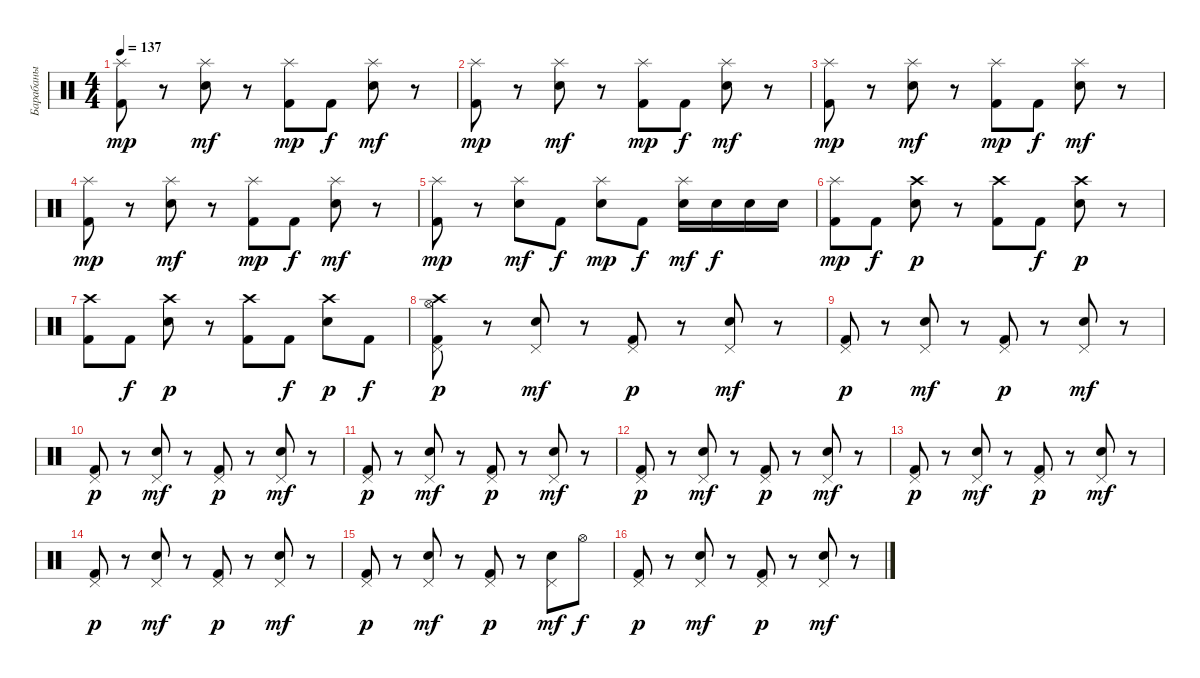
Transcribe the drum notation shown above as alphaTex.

\track ("Барабаны" "Барабаны") {instrument percussion}
\staff {score}
\articulation defaults
\ts (4 4)
\tempo 137
\clef neutral
\ks c
("Splash (hit)" "Kick (hit) 2").8{dy mp} r.8 ("Splash (hit)" "Electric Snare (hit)").8{dy mf} r.8 ("Splash (hit)" "Kick (hit) 2").8{dy mp} "Kick (hit) 2".8{dy f} ("Splash (hit)" "Electric Snare (hit)").8{dy mf} r.8 |
("Splash (hit)" "Kick (hit) 2").8{dy mp} r.8 ("Splash (hit)" "Electric Snare (hit)").8{dy mf} r.8 ("Splash (hit)" "Kick (hit) 2").8{dy mp} "Kick (hit) 2".8{dy f} ("Splash (hit)" "Electric Snare (hit)").8{dy mf} r.8 |
("Splash (hit)" "Kick (hit) 2").8{dy mp} r.8 ("Splash (hit)" "Electric Snare (hit)").8{dy mf} r.8 ("Splash (hit)" "Kick (hit) 2").8{dy mp} "Kick (hit) 2".8{dy f} ("Splash (hit)" "Electric Snare (hit)").8{dy mf} r.8 |
("Splash (hit)" "Kick (hit) 2").8{dy mp} r.8 ("Splash (hit)" "Electric Snare (hit)").8{dy mf} r.8 ("Splash (hit)" "Kick (hit) 2").8{dy mp} "Kick (hit) 2".8{dy f} ("Splash (hit)" "Electric Snare (hit)").8{dy mf} r.8 |
("Splash (hit)" "Kick (hit) 2").8{dy mp} r.8 ("Splash (hit)" "Electric Snare (hit)").8{dy mf} "Kick (hit) 2".8{dy f} ("Splash (hit)" "Electric Snare (hit)").8{dy mp} "Kick (hit) 2".8{dy f} ("Electric Snare (hit)" "Splash (hit)").16{dy mf} "Electric Snare (hit)".16{dy f} "Electric Snare (hit)".16 "Electric Snare (hit)".16 |
("Splash (hit)" "Kick (hit) 2").8{dy mp} "Kick (hit) 2".8{dy f} ("Crash high (hit)" "Electric Snare (hit)").8{dy p} r.8 ("Crash high (hit)" "Kick (hit) 2").8 "Kick (hit) 2".8{dy f} ("Crash high (hit)" "Electric Snare (hit)").8{dy p} r.8 |
("Crash high (hit)" "Kick (hit) 2").8 "Kick (hit) 2".8{dy f} ("Crash high (hit)" "Electric Snare (hit)").8{dy p} r.8 ("Crash high (hit)" "Kick (hit) 2").8 "Kick (hit) 2".8{dy f} ("Crash high (hit)" "Electric Snare (hit)").8{dy p} "Kick (hit) 2".8{dy f} |
("Pedal Hi-Hat (hit)" "Kick (hit) 2" "Hi-Hat (open)" "Crash high (hit)").8{dy p} r.8 ("Pedal Hi-Hat (hit)" "Electric Snare (hit)").8{dy mf} r.8 ("Pedal Hi-Hat (hit)" "Kick (hit) 2").8{dy p} r.8 ("Pedal Hi-Hat (hit)" "Electric Snare (hit)").8{dy mf} r.8 |
("Pedal Hi-Hat (hit)" "Kick (hit) 2").8{dy p} r.8 ("Pedal Hi-Hat (hit)" "Electric Snare (hit)").8{dy mf} r.8 ("Pedal Hi-Hat (hit)" "Kick (hit) 2").8{dy p} r.8 ("Pedal Hi-Hat (hit)" "Electric Snare (hit)").8{dy mf} r.8 |
("Pedal Hi-Hat (hit)" "Kick (hit) 2").8{dy p} r.8 ("Pedal Hi-Hat (hit)" "Electric Snare (hit)").8{dy mf} r.8 ("Pedal Hi-Hat (hit)" "Kick (hit) 2").8{dy p} r.8 ("Pedal Hi-Hat (hit)" "Electric Snare (hit)").8{dy mf} r.8 |
("Pedal Hi-Hat (hit)" "Kick (hit) 2").8{dy p} r.8 ("Pedal Hi-Hat (hit)" "Electric Snare (hit)").8{dy mf} r.8 ("Pedal Hi-Hat (hit)" "Kick (hit) 2").8{dy p} r.8 ("Pedal Hi-Hat (hit)" "Electric Snare (hit)").8{dy mf} r.8 |
("Pedal Hi-Hat (hit)" "Kick (hit) 2").8{dy p} r.8 ("Pedal Hi-Hat (hit)" "Electric Snare (hit)").8{dy mf} r.8 ("Pedal Hi-Hat (hit)" "Kick (hit) 2").8{dy p} r.8 ("Pedal Hi-Hat (hit)" "Electric Snare (hit)").8{dy mf} r.8 |
("Pedal Hi-Hat (hit)" "Kick (hit) 2").8{dy p} r.8 ("Pedal Hi-Hat (hit)" "Electric Snare (hit)").8{dy mf} r.8 ("Pedal Hi-Hat (hit)" "Kick (hit) 2").8{dy p} r.8 ("Pedal Hi-Hat (hit)" "Electric Snare (hit)").8{dy mf} r.8 |
("Pedal Hi-Hat (hit)" "Kick (hit) 2").8{dy p} r.8 ("Pedal Hi-Hat (hit)" "Electric Snare (hit)").8{dy mf} r.8 ("Pedal Hi-Hat (hit)" "Kick (hit) 2").8{dy p} r.8 ("Pedal Hi-Hat (hit)" "Electric Snare (hit)").8{dy mf} r.8 |
("Pedal Hi-Hat (hit)" "Kick (hit) 2").8{dy p} r.8 ("Pedal Hi-Hat (hit)" "Electric Snare (hit)").8{dy mf} r.8 ("Pedal Hi-Hat (hit)" "Kick (hit) 2").8{dy p} r.8 ("Pedal Hi-Hat (hit)" "Electric Snare (hit)").8{dy mf} "Hi-Hat (open)".8{dy f} |
("Pedal Hi-Hat (hit)" "Kick (hit) 2").8{dy p} r.8 ("Pedal Hi-Hat (hit)" "Electric Snare (hit)").8{dy mf} r.8 ("Pedal Hi-Hat (hit)" "Kick (hit) 2").8{dy p} r.8 ("Pedal Hi-Hat (hit)" "Electric Snare (hit)").8{dy mf} r.8
